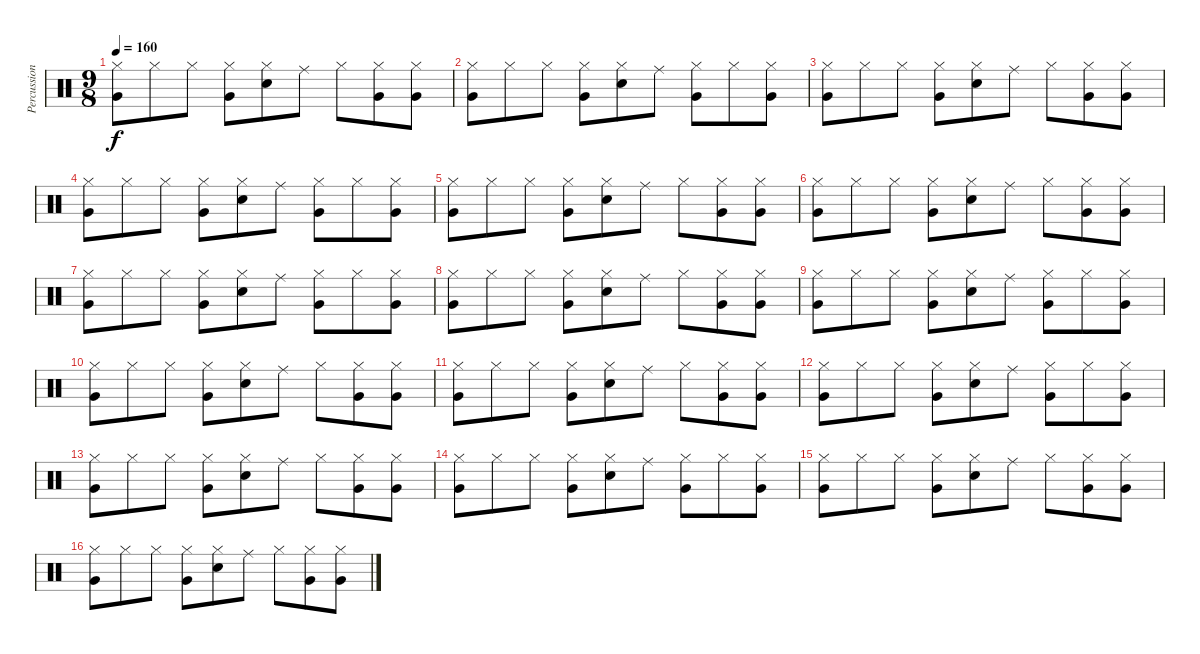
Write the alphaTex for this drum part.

\track ("Percussions" "Percussion") {instrument percussion}
\staff {score}
\articulation defaults
\ts (9 8)
\tempo 160
\clef neutral
\ks c
("Hi-Hat (closed)" "Very Low Tom (hit)").8{dy f} "Hi-Hat (closed)".8 "Hi-Hat (closed)".8 ("Hi-Hat (closed)" "Very Low Tom (hit)").8 ("Hi-Hat (closed)" "Snare (hit) 2").8 "Ride (middle)".8 "Hi-Hat (closed)".8 ("Hi-Hat (closed)" "Very Low Tom (hit)").8 ("Hi-Hat (closed)" "Very Low Tom (hit)").8 |
("Hi-Hat (closed)" "Very Low Tom (hit)").8 "Hi-Hat (closed)".8 "Hi-Hat (closed)".8 ("Hi-Hat (closed)" "Very Low Tom (hit)").8 ("Hi-Hat (closed)" "Snare (hit) 2").8 "Ride (middle)".8 ("Hi-Hat (closed)" "Very Low Tom (hit)").8 "Hi-Hat (closed)".8 ("Hi-Hat (closed)" "Very Low Tom (hit)").8 |
("Hi-Hat (closed)" "Very Low Tom (hit)").8 "Hi-Hat (closed)".8 "Hi-Hat (closed)".8 ("Hi-Hat (closed)" "Very Low Tom (hit)").8 ("Hi-Hat (closed)" "Snare (hit) 2").8 "Ride (middle)".8 "Hi-Hat (closed)".8 ("Hi-Hat (closed)" "Very Low Tom (hit)").8 ("Hi-Hat (closed)" "Very Low Tom (hit)").8 |
("Hi-Hat (closed)" "Very Low Tom (hit)").8 "Hi-Hat (closed)".8 "Hi-Hat (closed)".8 ("Hi-Hat (closed)" "Very Low Tom (hit)").8 ("Hi-Hat (closed)" "Snare (hit) 2").8 "Ride (middle)".8 ("Hi-Hat (closed)" "Very Low Tom (hit)").8 "Hi-Hat (closed)".8 ("Hi-Hat (closed)" "Very Low Tom (hit)").8 |
("Hi-Hat (closed)" "Very Low Tom (hit)").8 "Hi-Hat (closed)".8 "Hi-Hat (closed)".8 ("Hi-Hat (closed)" "Very Low Tom (hit)").8 ("Hi-Hat (closed)" "Snare (hit) 2").8 "Ride (middle)".8 "Hi-Hat (closed)".8 ("Hi-Hat (closed)" "Very Low Tom (hit)").8 ("Hi-Hat (closed)" "Very Low Tom (hit)").8 |
("Hi-Hat (closed)" "Very Low Tom (hit)").8 "Hi-Hat (closed)".8 "Hi-Hat (closed)".8 ("Hi-Hat (closed)" "Very Low Tom (hit)").8 ("Hi-Hat (closed)" "Snare (hit) 2").8 "Ride (middle)".8 "Hi-Hat (closed)".8 ("Hi-Hat (closed)" "Very Low Tom (hit)").8 ("Hi-Hat (closed)" "Very Low Tom (hit)").8 |
("Hi-Hat (closed)" "Very Low Tom (hit)").8 "Hi-Hat (closed)".8 "Hi-Hat (closed)".8 ("Hi-Hat (closed)" "Very Low Tom (hit)").8 ("Hi-Hat (closed)" "Snare (hit) 2").8 "Ride (middle)".8 ("Hi-Hat (closed)" "Very Low Tom (hit)").8 "Hi-Hat (closed)".8 ("Hi-Hat (closed)" "Very Low Tom (hit)").8 |
("Hi-Hat (closed)" "Very Low Tom (hit)").8 "Hi-Hat (closed)".8 "Hi-Hat (closed)".8 ("Hi-Hat (closed)" "Very Low Tom (hit)").8 ("Hi-Hat (closed)" "Snare (hit) 2").8 "Ride (middle)".8 "Hi-Hat (closed)".8 ("Hi-Hat (closed)" "Very Low Tom (hit)").8 ("Hi-Hat (closed)" "Very Low Tom (hit)").8 |
("Hi-Hat (closed)" "Very Low Tom (hit)").8 "Hi-Hat (closed)".8 "Hi-Hat (closed)".8 ("Hi-Hat (closed)" "Very Low Tom (hit)").8 ("Hi-Hat (closed)" "Snare (hit) 2").8 "Ride (middle)".8 ("Hi-Hat (closed)" "Very Low Tom (hit)").8 "Hi-Hat (closed)".8 ("Hi-Hat (closed)" "Very Low Tom (hit)").8 |
("Hi-Hat (closed)" "Very Low Tom (hit)").8 "Hi-Hat (closed)".8 "Hi-Hat (closed)".8 ("Hi-Hat (closed)" "Very Low Tom (hit)").8 ("Hi-Hat (closed)" "Snare (hit) 2").8 "Ride (middle)".8 "Hi-Hat (closed)".8 ("Hi-Hat (closed)" "Very Low Tom (hit)").8 ("Hi-Hat (closed)" "Very Low Tom (hit)").8 |
("Hi-Hat (closed)" "Very Low Tom (hit)").8 "Hi-Hat (closed)".8 "Hi-Hat (closed)".8 ("Hi-Hat (closed)" "Very Low Tom (hit)").8 ("Hi-Hat (closed)" "Snare (hit) 2").8 "Ride (middle)".8 "Hi-Hat (closed)".8 ("Hi-Hat (closed)" "Very Low Tom (hit)").8 ("Hi-Hat (closed)" "Very Low Tom (hit)").8 |
("Hi-Hat (closed)" "Very Low Tom (hit)").8 "Hi-Hat (closed)".8 "Hi-Hat (closed)".8 ("Hi-Hat (closed)" "Very Low Tom (hit)").8 ("Hi-Hat (closed)" "Snare (hit) 2").8 "Ride (middle)".8 ("Hi-Hat (closed)" "Very Low Tom (hit)").8 "Hi-Hat (closed)".8 ("Hi-Hat (closed)" "Very Low Tom (hit)").8 |
("Hi-Hat (closed)" "Very Low Tom (hit)").8 "Hi-Hat (closed)".8 "Hi-Hat (closed)".8 ("Hi-Hat (closed)" "Very Low Tom (hit)").8 ("Hi-Hat (closed)" "Snare (hit) 2").8 "Ride (middle)".8 "Hi-Hat (closed)".8 ("Hi-Hat (closed)" "Very Low Tom (hit)").8 ("Hi-Hat (closed)" "Very Low Tom (hit)").8 |
("Hi-Hat (closed)" "Very Low Tom (hit)").8 "Hi-Hat (closed)".8 "Hi-Hat (closed)".8 ("Hi-Hat (closed)" "Very Low Tom (hit)").8 ("Hi-Hat (closed)" "Snare (hit) 2").8 "Ride (middle)".8 ("Hi-Hat (closed)" "Very Low Tom (hit)").8 "Hi-Hat (closed)".8 ("Hi-Hat (closed)" "Very Low Tom (hit)").8 |
("Hi-Hat (closed)" "Very Low Tom (hit)").8 "Hi-Hat (closed)".8 "Hi-Hat (closed)".8 ("Hi-Hat (closed)" "Very Low Tom (hit)").8 ("Hi-Hat (closed)" "Snare (hit) 2").8 "Ride (middle)".8 "Hi-Hat (closed)".8 ("Hi-Hat (closed)" "Very Low Tom (hit)").8 ("Hi-Hat (closed)" "Very Low Tom (hit)").8 |
("Hi-Hat (closed)" "Very Low Tom (hit)").8 "Hi-Hat (closed)".8 "Hi-Hat (closed)".8 ("Hi-Hat (closed)" "Very Low Tom (hit)").8 ("Hi-Hat (closed)" "Snare (hit) 2").8 "Ride (middle)".8 "Hi-Hat (closed)".8 ("Hi-Hat (closed)" "Very Low Tom (hit)").8 ("Hi-Hat (closed)" "Very Low Tom (hit)").8
